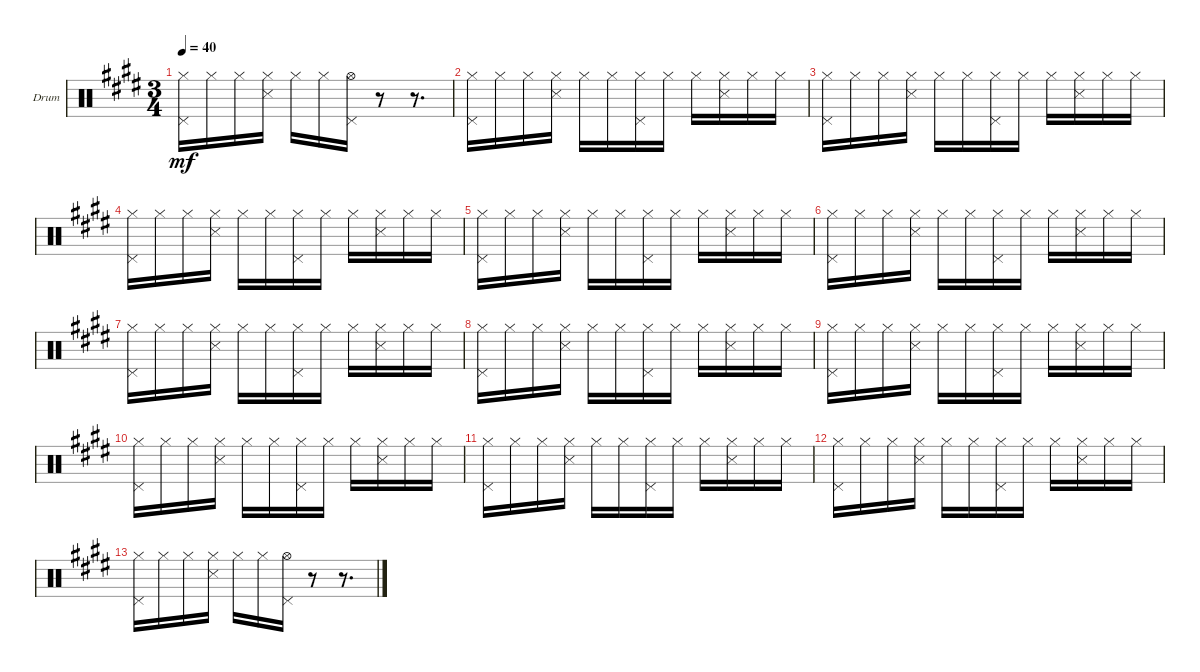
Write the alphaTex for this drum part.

\defaultSystemsLayout 4
\bracketExtendMode groupsimilarinstruments
\firstSystemTrackNameOrientation horizontal
\otherSystemsTrackNameOrientation horizontal
\track ("Drum" "Drum") {multiBarRest instrument percussion}
\staff {score}
\articulation defaults
\ts (3 4)
\tempo 40
\clef neutral
\ks c#minor
("Hi-Hat (closed)" "Pedal Hi-Hat (hit)").16{dy mf} "Hi-Hat (closed)".16 "Hi-Hat (closed)".16 ("Hi-Hat (closed)" "Snare (side stick) 3").16 "Hi-Hat (closed)".16 "Hi-Hat (closed)".16 ("Pedal Hi-Hat (hit)" "Hi-Hat (open)").16 r.8 r.8{d} |
("Hi-Hat (closed)" "Pedal Hi-Hat (hit)").16 "Hi-Hat (closed)".16 "Hi-Hat (closed)".16 ("Hi-Hat (closed)" "Snare (side stick) 3").16 "Hi-Hat (closed)".16 "Hi-Hat (closed)".16 ("Hi-Hat (closed)" "Pedal Hi-Hat (hit)").16 "Hi-Hat (closed)".16 "Hi-Hat (closed)".16 ("Hi-Hat (closed)" "Snare (side stick) 3").16 "Hi-Hat (closed)".16 "Hi-Hat (closed)".16 |
("Hi-Hat (closed)" "Pedal Hi-Hat (hit)").16 "Hi-Hat (closed)".16 "Hi-Hat (closed)".16 ("Hi-Hat (closed)" "Snare (side stick) 3").16 "Hi-Hat (closed)".16 "Hi-Hat (closed)".16 ("Hi-Hat (closed)" "Pedal Hi-Hat (hit)").16 "Hi-Hat (closed)".16 "Hi-Hat (closed)".16 ("Hi-Hat (closed)" "Snare (side stick) 3").16 "Hi-Hat (closed)".16 "Hi-Hat (closed)".16 |
("Hi-Hat (closed)" "Pedal Hi-Hat (hit)").16 "Hi-Hat (closed)".16 "Hi-Hat (closed)".16 ("Hi-Hat (closed)" "Snare (side stick) 3").16 "Hi-Hat (closed)".16 "Hi-Hat (closed)".16 ("Hi-Hat (closed)" "Pedal Hi-Hat (hit)").16 "Hi-Hat (closed)".16 "Hi-Hat (closed)".16 ("Hi-Hat (closed)" "Snare (side stick) 3").16 "Hi-Hat (closed)".16 "Hi-Hat (closed)".16 |
("Hi-Hat (closed)" "Pedal Hi-Hat (hit)").16 "Hi-Hat (closed)".16 "Hi-Hat (closed)".16 ("Hi-Hat (closed)" "Snare (side stick) 3").16 "Hi-Hat (closed)".16 "Hi-Hat (closed)".16 ("Hi-Hat (closed)" "Pedal Hi-Hat (hit)").16 "Hi-Hat (closed)".16 "Hi-Hat (closed)".16 ("Hi-Hat (closed)" "Snare (side stick) 3").16 "Hi-Hat (closed)".16 "Hi-Hat (closed)".16 |
("Hi-Hat (closed)" "Pedal Hi-Hat (hit)").16 "Hi-Hat (closed)".16 "Hi-Hat (closed)".16 ("Hi-Hat (closed)" "Snare (side stick) 3").16 "Hi-Hat (closed)".16 "Hi-Hat (closed)".16 ("Hi-Hat (closed)" "Pedal Hi-Hat (hit)").16 "Hi-Hat (closed)".16 "Hi-Hat (closed)".16 ("Hi-Hat (closed)" "Snare (side stick) 3").16 "Hi-Hat (closed)".16 "Hi-Hat (closed)".16 |
("Hi-Hat (closed)" "Pedal Hi-Hat (hit)").16 "Hi-Hat (closed)".16 "Hi-Hat (closed)".16 ("Hi-Hat (closed)" "Snare (side stick) 3").16 "Hi-Hat (closed)".16 "Hi-Hat (closed)".16 ("Hi-Hat (closed)" "Pedal Hi-Hat (hit)").16 "Hi-Hat (closed)".16 "Hi-Hat (closed)".16 ("Hi-Hat (closed)" "Snare (side stick) 3").16 "Hi-Hat (closed)".16 "Hi-Hat (closed)".16 |
("Hi-Hat (closed)" "Pedal Hi-Hat (hit)").16 "Hi-Hat (closed)".16 "Hi-Hat (closed)".16 ("Hi-Hat (closed)" "Snare (side stick) 3").16 "Hi-Hat (closed)".16 "Hi-Hat (closed)".16 ("Hi-Hat (closed)" "Pedal Hi-Hat (hit)").16 "Hi-Hat (closed)".16 "Hi-Hat (closed)".16 ("Hi-Hat (closed)" "Snare (side stick) 3").16 "Hi-Hat (closed)".16 "Hi-Hat (closed)".16 |
("Hi-Hat (closed)" "Pedal Hi-Hat (hit)").16 "Hi-Hat (closed)".16 "Hi-Hat (closed)".16 ("Hi-Hat (closed)" "Snare (side stick) 3").16 "Hi-Hat (closed)".16 "Hi-Hat (closed)".16 ("Hi-Hat (closed)" "Pedal Hi-Hat (hit)").16 "Hi-Hat (closed)".16 "Hi-Hat (closed)".16 ("Hi-Hat (closed)" "Snare (side stick) 3").16 "Hi-Hat (closed)".16 "Hi-Hat (closed)".16 |
("Hi-Hat (closed)" "Pedal Hi-Hat (hit)").16 "Hi-Hat (closed)".16 "Hi-Hat (closed)".16 ("Hi-Hat (closed)" "Snare (side stick) 3").16 "Hi-Hat (closed)".16 "Hi-Hat (closed)".16 ("Hi-Hat (closed)" "Pedal Hi-Hat (hit)").16 "Hi-Hat (closed)".16 "Hi-Hat (closed)".16 ("Hi-Hat (closed)" "Snare (side stick) 3").16 "Hi-Hat (closed)".16 "Hi-Hat (closed)".16 |
("Hi-Hat (closed)" "Pedal Hi-Hat (hit)").16 "Hi-Hat (closed)".16 "Hi-Hat (closed)".16 ("Hi-Hat (closed)" "Snare (side stick) 3").16 "Hi-Hat (closed)".16 "Hi-Hat (closed)".16 ("Hi-Hat (closed)" "Pedal Hi-Hat (hit)").16 "Hi-Hat (closed)".16 "Hi-Hat (closed)".16 ("Hi-Hat (closed)" "Snare (side stick) 3").16 "Hi-Hat (closed)".16 "Hi-Hat (closed)".16 |
("Hi-Hat (closed)" "Pedal Hi-Hat (hit)").16 "Hi-Hat (closed)".16 "Hi-Hat (closed)".16 ("Hi-Hat (closed)" "Snare (side stick) 3").16 "Hi-Hat (closed)".16 "Hi-Hat (closed)".16 ("Hi-Hat (closed)" "Pedal Hi-Hat (hit)").16 "Hi-Hat (closed)".16 "Hi-Hat (closed)".16 ("Hi-Hat (closed)" "Snare (side stick) 3").16 "Hi-Hat (closed)".16 "Hi-Hat (closed)".16 |
("Hi-Hat (closed)" "Pedal Hi-Hat (hit)").16 "Hi-Hat (closed)".16 "Hi-Hat (closed)".16 ("Hi-Hat (closed)" "Snare (side stick) 3").16 "Hi-Hat (closed)".16 "Hi-Hat (closed)".16 ("Pedal Hi-Hat (hit)" "Hi-Hat (open)").16 r.8 r.8{d}
